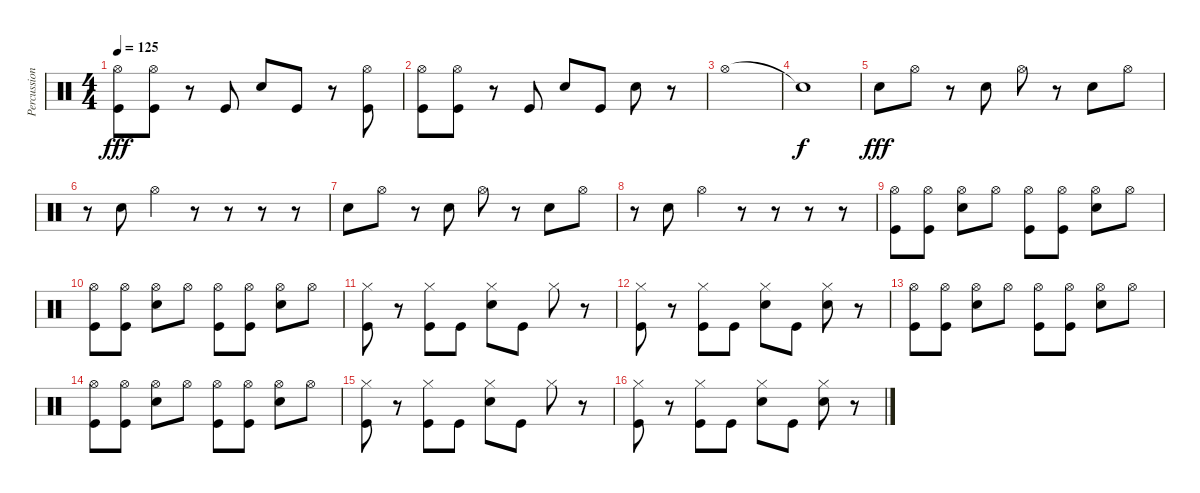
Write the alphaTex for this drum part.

\track ("Percussion" "Percussion") {instrument percussion}
\staff {score}
\articulation defaults
\ts (4 4)
\tempo 125
\clef neutral
\ks c
("Kick (hit)" "Hi-Hat (open)").8{dy fff} ("Kick (hit)" "Hi-Hat (open)").8 r.8 "Kick (hit)".8 "Snare (hit) 2".8 "Kick (hit)".8 r.8 ("Kick (hit)" "Hi-Hat (open)").8 |
("Kick (hit)" "Hi-Hat (open)").8 ("Kick (hit)" "Hi-Hat (open)").8 r.8 "Kick (hit)".8 "Snare (hit) 2".8 "Kick (hit)".8 "Snare (hit) 2".8 r.8 |
"Hi-Hat (open)".1 |
"Snare (hit)"{t}.1{dy f} |
"Snare (hit) 2".8{dy fff} "Hi-Hat (open)".8 r.8 "Snare (hit) 2".8 "Hi-Hat (open)".8 r.8 "Snare (hit) 2".8 "Hi-Hat (open)".8 |
r.8 "Snare (hit) 2".8 "Hi-Hat (open)".4 r.8 r.8 r.8 r.8 |
"Snare (hit) 2".8 "Hi-Hat (open)".8 r.8 "Snare (hit) 2".8 "Hi-Hat (open)".8 r.8 "Snare (hit) 2".8 "Hi-Hat (open)".8 |
r.8 "Snare (hit) 2".8 "Hi-Hat (open)".4 r.8 r.8 r.8 r.8 |
("Kick (hit)" "Hi-Hat (open)").8 ("Kick (hit)" "Hi-Hat (open)").8 ("Snare (hit) 2" "Hi-Hat (open)").8 "Hi-Hat (open)".8 ("Kick (hit)" "Hi-Hat (open)").8 ("Kick (hit)" "Hi-Hat (open)").8 ("Snare (hit) 2" "Hi-Hat (open)").8 "Hi-Hat (open)".8 |
("Kick (hit)" "Hi-Hat (open)").8 ("Kick (hit)" "Hi-Hat (open)").8 ("Snare (hit) 2" "Hi-Hat (open)").8 "Hi-Hat (open)".8 ("Kick (hit)" "Hi-Hat (open)").8 ("Kick (hit)" "Hi-Hat (open)").8 ("Snare (hit) 2" "Hi-Hat (open)").8 "Hi-Hat (open)".8 |
("Kick (hit)" "Hi-Hat (closed)").8 r.8 ("Kick (hit)" "Hi-Hat (closed)").8 "Kick (hit)".8 ("Snare (hit) 2" "Hi-Hat (closed)").8 "Kick (hit)".8 "Hi-Hat (closed)".8 r.8 |
("Kick (hit)" "Hi-Hat (closed)").8 r.8 ("Kick (hit)" "Hi-Hat (closed)").8 "Kick (hit)".8 ("Snare (hit) 2" "Hi-Hat (closed)").8 "Kick (hit)".8 ("Snare (hit) 2" "Hi-Hat (closed)").8 r.8 |
("Kick (hit)" "Hi-Hat (open)").8 ("Kick (hit)" "Hi-Hat (open)").8 ("Snare (hit) 2" "Hi-Hat (open)").8 "Hi-Hat (open)".8 ("Kick (hit)" "Hi-Hat (open)").8 ("Kick (hit)" "Hi-Hat (open)").8 ("Snare (hit) 2" "Hi-Hat (open)").8 "Hi-Hat (open)".8 |
("Kick (hit)" "Hi-Hat (open)").8 ("Kick (hit)" "Hi-Hat (open)").8 ("Snare (hit) 2" "Hi-Hat (open)").8 "Hi-Hat (open)".8 ("Kick (hit)" "Hi-Hat (open)").8 ("Kick (hit)" "Hi-Hat (open)").8 ("Snare (hit) 2" "Hi-Hat (open)").8 "Hi-Hat (open)".8 |
("Kick (hit)" "Hi-Hat (closed)").8 r.8 ("Kick (hit)" "Hi-Hat (closed)").8 "Kick (hit)".8 ("Snare (hit) 2" "Hi-Hat (closed)").8 "Kick (hit)".8 "Hi-Hat (closed)".8 r.8 |
("Kick (hit)" "Hi-Hat (closed)").8 r.8 ("Kick (hit)" "Hi-Hat (closed)").8 "Kick (hit)".8 ("Snare (hit) 2" "Hi-Hat (closed)").8 "Kick (hit)".8 ("Snare (hit) 2" "Hi-Hat (closed)").8 r.8
